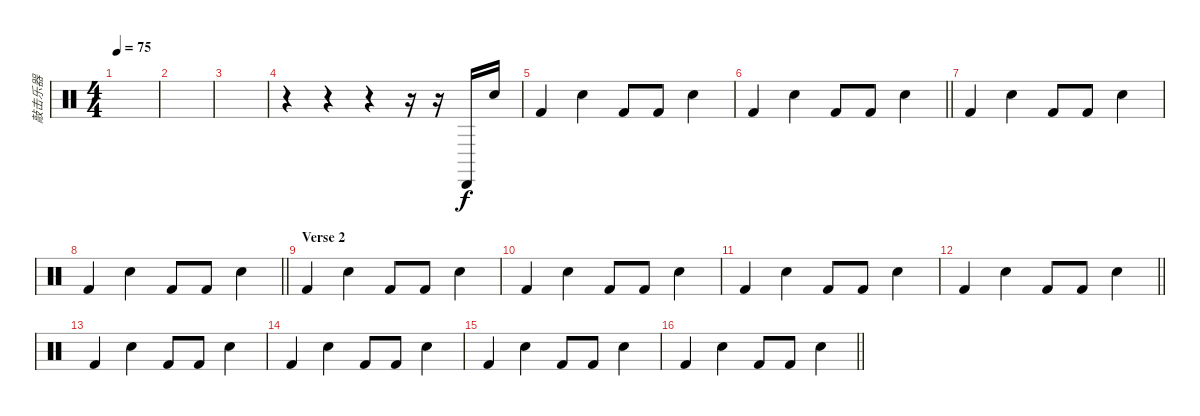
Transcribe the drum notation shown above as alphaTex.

\track ("敲击乐器" "敲击乐器") {instrument percussion}
\staff {score}
\articulation defaults
\ts (4 4)
\tempo 75
\clef neutral
\ks c
|
|
|
r.4 r.4 r.4 r.16 r.16 "Cabasa (hit)".16 "Snare (hit) 2".16 |
"Kick (hit) 2".4 "Snare (hit) 2".4 "Kick (hit) 2".8 "Kick (hit) 2".8 "Snare (hit) 2".4 |
\barLineRight lightlight "Kick (hit) 2".4 "Snare (hit) 2".4 "Kick (hit) 2".8 "Kick (hit) 2".8 "Snare (hit) 2".4
|
"Kick (hit) 2".4 "Snare (hit) 2".4 "Kick (hit) 2".8 "Kick (hit) 2".8 "Snare (hit) 2".4 |
\barLineRight lightlight "Kick (hit) 2".4 "Snare (hit) 2".4 "Kick (hit) 2".8 "Kick (hit) 2".8 "Snare (hit) 2".4
|
\section ("" "Verse 2")
"Kick (hit) 2".4 "Snare (hit) 2".4 "Kick (hit) 2".8 "Kick (hit) 2".8 "Snare (hit) 2".4 |
"Kick (hit) 2".4 "Snare (hit) 2".4 "Kick (hit) 2".8 "Kick (hit) 2".8 "Snare (hit) 2".4 |
"Kick (hit) 2".4 "Snare (hit) 2".4 "Kick (hit) 2".8 "Kick (hit) 2".8 "Snare (hit) 2".4 |
\barLineRight lightlight "Kick (hit) 2".4 "Snare (hit) 2".4 "Kick (hit) 2".8 "Kick (hit) 2".8 "Snare (hit) 2".4
|
"Kick (hit) 2".4 "Snare (hit) 2".4 "Kick (hit) 2".8 "Kick (hit) 2".8 "Snare (hit) 2".4 |
"Kick (hit) 2".4 "Snare (hit) 2".4 "Kick (hit) 2".8 "Kick (hit) 2".8 "Snare (hit) 2".4 |
"Kick (hit) 2".4 "Snare (hit) 2".4 "Kick (hit) 2".8 "Kick (hit) 2".8 "Snare (hit) 2".4 |
\barLineRight lightlight "Kick (hit) 2".4 "Snare (hit) 2".4 "Kick (hit) 2".8 "Kick (hit) 2".8 "Snare (hit) 2".4
